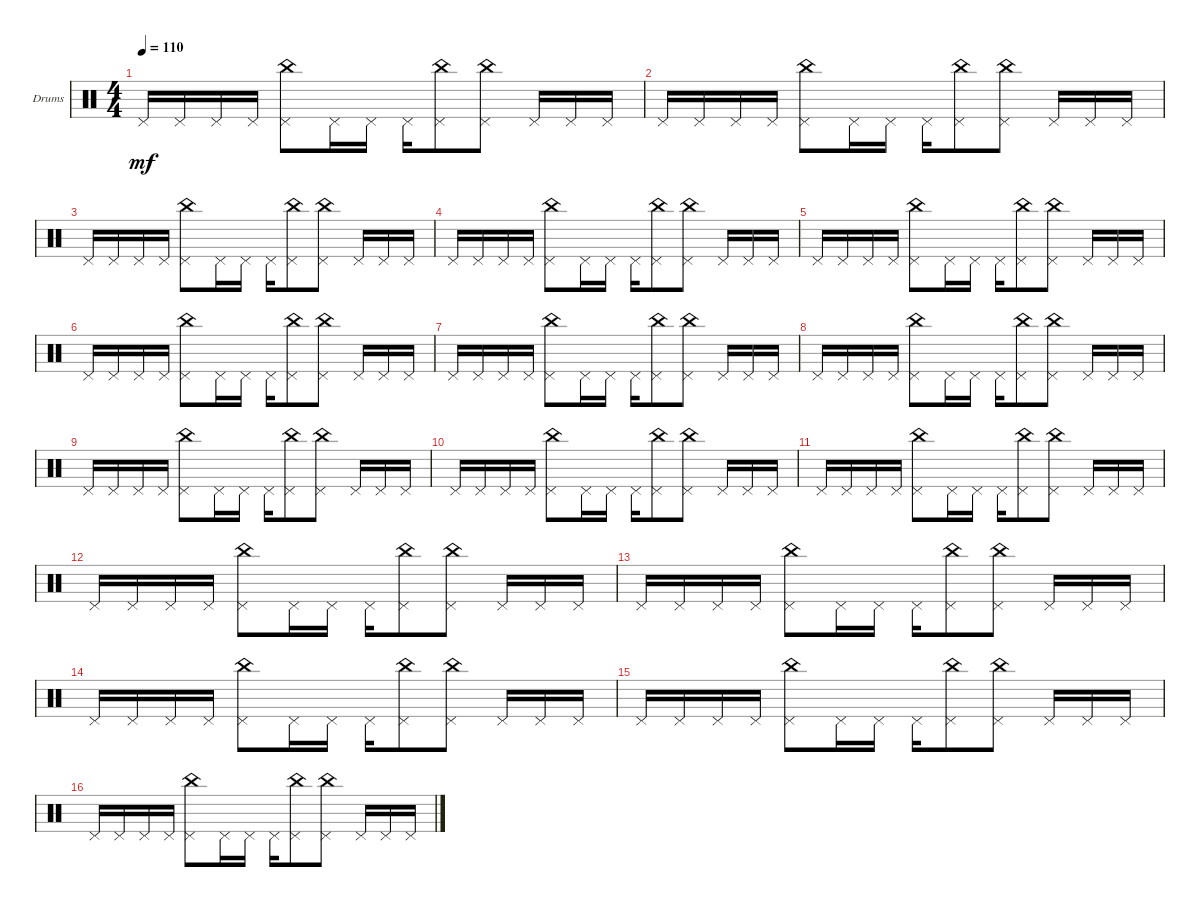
\defaultSystemsLayout 4
\bracketExtendMode groupsimilarinstruments
\firstSystemTrackNameOrientation horizontal
\otherSystemsTrackNameOrientation horizontal
\track ("Drumkit" "Drums") {instrument percussion}
\staff {score}
\articulation defaults
\ts (4 4)
\tempo 110
\clef neutral
\ks c "Pedal Hi-Hat (hit)".16{dy mf} "Pedal Hi-Hat (hit)".16 "Pedal Hi-Hat (hit)".16 "Pedal Hi-Hat (hit)".16
("Pedal Hi-Hat (hit)" "China (hit)").8 "Pedal Hi-Hat (hit)".16 "Pedal Hi-Hat (hit)".16 "Pedal Hi-Hat (hit)".16 ("Pedal Hi-Hat (hit)" "China (hit)").8 ("China (hit)" "Pedal Hi-Hat (hit)").8 "Pedal Hi-Hat (hit)".16 "Pedal Hi-Hat (hit)".16 "Pedal Hi-Hat (hit)".16 |
"Pedal Hi-Hat (hit)".16 "Pedal Hi-Hat (hit)".16 "Pedal Hi-Hat (hit)".16 "Pedal Hi-Hat (hit)".16 ("Pedal Hi-Hat (hit)" "China (hit)").8 "Pedal Hi-Hat (hit)".16 "Pedal Hi-Hat (hit)".16 "Pedal Hi-Hat (hit)".16 ("Pedal Hi-Hat (hit)" "China (hit)").8 ("China (hit)" "Pedal Hi-Hat (hit)").8 "Pedal Hi-Hat (hit)".16 "Pedal Hi-Hat (hit)".16 "Pedal Hi-Hat (hit)".16 |
"Pedal Hi-Hat (hit)".16 "Pedal Hi-Hat (hit)".16 "Pedal Hi-Hat (hit)".16 "Pedal Hi-Hat (hit)".16 ("Pedal Hi-Hat (hit)" "China (hit)").8 "Pedal Hi-Hat (hit)".16 "Pedal Hi-Hat (hit)".16 "Pedal Hi-Hat (hit)".16 ("Pedal Hi-Hat (hit)" "China (hit)").8 ("China (hit)" "Pedal Hi-Hat (hit)").8 "Pedal Hi-Hat (hit)".16 "Pedal Hi-Hat (hit)".16 "Pedal Hi-Hat (hit)".16 |
"Pedal Hi-Hat (hit)".16 "Pedal Hi-Hat (hit)".16 "Pedal Hi-Hat (hit)".16 "Pedal Hi-Hat (hit)".16 ("Pedal Hi-Hat (hit)" "China (hit)").8 "Pedal Hi-Hat (hit)".16 "Pedal Hi-Hat (hit)".16 "Pedal Hi-Hat (hit)".16 ("Pedal Hi-Hat (hit)" "China (hit)").8 ("China (hit)" "Pedal Hi-Hat (hit)").8 "Pedal Hi-Hat (hit)".16 "Pedal Hi-Hat (hit)".16 "Pedal Hi-Hat (hit)".16 |
"Pedal Hi-Hat (hit)".16 "Pedal Hi-Hat (hit)".16 "Pedal Hi-Hat (hit)".16 "Pedal Hi-Hat (hit)".16 ("Pedal Hi-Hat (hit)" "China (hit)").8 "Pedal Hi-Hat (hit)".16 "Pedal Hi-Hat (hit)".16 "Pedal Hi-Hat (hit)".16 ("Pedal Hi-Hat (hit)" "China (hit)").8 ("China (hit)" "Pedal Hi-Hat (hit)").8 "Pedal Hi-Hat (hit)".16 "Pedal Hi-Hat (hit)".16 "Pedal Hi-Hat (hit)".16 |
"Pedal Hi-Hat (hit)".16 "Pedal Hi-Hat (hit)".16 "Pedal Hi-Hat (hit)".16 "Pedal Hi-Hat (hit)".16 ("Pedal Hi-Hat (hit)" "China (hit)").8 "Pedal Hi-Hat (hit)".16 "Pedal Hi-Hat (hit)".16 "Pedal Hi-Hat (hit)".16 ("Pedal Hi-Hat (hit)" "China (hit)").8 ("China (hit)" "Pedal Hi-Hat (hit)").8 "Pedal Hi-Hat (hit)".16 "Pedal Hi-Hat (hit)".16 "Pedal Hi-Hat (hit)".16 |
"Pedal Hi-Hat (hit)".16 "Pedal Hi-Hat (hit)".16 "Pedal Hi-Hat (hit)".16 "Pedal Hi-Hat (hit)".16 ("Pedal Hi-Hat (hit)" "China (hit)").8 "Pedal Hi-Hat (hit)".16 "Pedal Hi-Hat (hit)".16 "Pedal Hi-Hat (hit)".16 ("Pedal Hi-Hat (hit)" "China (hit)").8 ("China (hit)" "Pedal Hi-Hat (hit)").8 "Pedal Hi-Hat (hit)".16 "Pedal Hi-Hat (hit)".16 "Pedal Hi-Hat (hit)".16 |
"Pedal Hi-Hat (hit)".16 "Pedal Hi-Hat (hit)".16 "Pedal Hi-Hat (hit)".16 "Pedal Hi-Hat (hit)".16 ("Pedal Hi-Hat (hit)" "China (hit)").8 "Pedal Hi-Hat (hit)".16 "Pedal Hi-Hat (hit)".16 "Pedal Hi-Hat (hit)".16 ("Pedal Hi-Hat (hit)" "China (hit)").8 ("China (hit)" "Pedal Hi-Hat (hit)").8 "Pedal Hi-Hat (hit)".16 "Pedal Hi-Hat (hit)".16 "Pedal Hi-Hat (hit)".16 |
"Pedal Hi-Hat (hit)".16 "Pedal Hi-Hat (hit)".16 "Pedal Hi-Hat (hit)".16 "Pedal Hi-Hat (hit)".16 ("Pedal Hi-Hat (hit)" "China (hit)").8 "Pedal Hi-Hat (hit)".16 "Pedal Hi-Hat (hit)".16 "Pedal Hi-Hat (hit)".16 ("Pedal Hi-Hat (hit)" "China (hit)").8 ("China (hit)" "Pedal Hi-Hat (hit)").8 "Pedal Hi-Hat (hit)".16 "Pedal Hi-Hat (hit)".16 "Pedal Hi-Hat (hit)".16 |
"Pedal Hi-Hat (hit)".16 "Pedal Hi-Hat (hit)".16 "Pedal Hi-Hat (hit)".16 "Pedal Hi-Hat (hit)".16 ("Pedal Hi-Hat (hit)" "China (hit)").8 "Pedal Hi-Hat (hit)".16 "Pedal Hi-Hat (hit)".16 "Pedal Hi-Hat (hit)".16 ("Pedal Hi-Hat (hit)" "China (hit)").8 ("China (hit)" "Pedal Hi-Hat (hit)").8 "Pedal Hi-Hat (hit)".16 "Pedal Hi-Hat (hit)".16 "Pedal Hi-Hat (hit)".16 |
"Pedal Hi-Hat (hit)".16 "Pedal Hi-Hat (hit)".16 "Pedal Hi-Hat (hit)".16 "Pedal Hi-Hat (hit)".16 ("Pedal Hi-Hat (hit)" "China (hit)").8 "Pedal Hi-Hat (hit)".16 "Pedal Hi-Hat (hit)".16 "Pedal Hi-Hat (hit)".16 ("Pedal Hi-Hat (hit)" "China (hit)").8 ("China (hit)" "Pedal Hi-Hat (hit)").8 "Pedal Hi-Hat (hit)".16 "Pedal Hi-Hat (hit)".16 "Pedal Hi-Hat (hit)".16 |
"Pedal Hi-Hat (hit)".16 "Pedal Hi-Hat (hit)".16 "Pedal Hi-Hat (hit)".16 "Pedal Hi-Hat (hit)".16 ("Pedal Hi-Hat (hit)" "China (hit)").8 "Pedal Hi-Hat (hit)".16 "Pedal Hi-Hat (hit)".16 "Pedal Hi-Hat (hit)".16 ("Pedal Hi-Hat (hit)" "China (hit)").8 ("China (hit)" "Pedal Hi-Hat (hit)").8 "Pedal Hi-Hat (hit)".16 "Pedal Hi-Hat (hit)".16 "Pedal Hi-Hat (hit)".16 |
"Pedal Hi-Hat (hit)".16 "Pedal Hi-Hat (hit)".16 "Pedal Hi-Hat (hit)".16 "Pedal Hi-Hat (hit)".16 ("Pedal Hi-Hat (hit)" "China (hit)").8 "Pedal Hi-Hat (hit)".16 "Pedal Hi-Hat (hit)".16 "Pedal Hi-Hat (hit)".16 ("Pedal Hi-Hat (hit)" "China (hit)").8 ("China (hit)" "Pedal Hi-Hat (hit)").8 "Pedal Hi-Hat (hit)".16 "Pedal Hi-Hat (hit)".16 "Pedal Hi-Hat (hit)".16 |
"Pedal Hi-Hat (hit)".16 "Pedal Hi-Hat (hit)".16 "Pedal Hi-Hat (hit)".16 "Pedal Hi-Hat (hit)".16 ("Pedal Hi-Hat (hit)" "China (hit)").8 "Pedal Hi-Hat (hit)".16 "Pedal Hi-Hat (hit)".16 "Pedal Hi-Hat (hit)".16 ("Pedal Hi-Hat (hit)" "China (hit)").8 ("China (hit)" "Pedal Hi-Hat (hit)").8 "Pedal Hi-Hat (hit)".16 "Pedal Hi-Hat (hit)".16 "Pedal Hi-Hat (hit)".16 |
"Pedal Hi-Hat (hit)".16 "Pedal Hi-Hat (hit)".16 "Pedal Hi-Hat (hit)".16 "Pedal Hi-Hat (hit)".16 ("Pedal Hi-Hat (hit)" "China (hit)").8 "Pedal Hi-Hat (hit)".16 "Pedal Hi-Hat (hit)".16 "Pedal Hi-Hat (hit)".16 ("Pedal Hi-Hat (hit)" "China (hit)").8 ("China (hit)" "Pedal Hi-Hat (hit)").8 "Pedal Hi-Hat (hit)".16 "Pedal Hi-Hat (hit)".16 "Pedal Hi-Hat (hit)".16 |
"Pedal Hi-Hat (hit)".16 "Pedal Hi-Hat (hit)".16 "Pedal Hi-Hat (hit)".16 "Pedal Hi-Hat (hit)".16 ("Pedal Hi-Hat (hit)" "China (hit)").8 "Pedal Hi-Hat (hit)".16 "Pedal Hi-Hat (hit)".16 "Pedal Hi-Hat (hit)".16 ("Pedal Hi-Hat (hit)" "China (hit)").8 ("China (hit)" "Pedal Hi-Hat (hit)").8 "Pedal Hi-Hat (hit)".16 "Pedal Hi-Hat (hit)".16 "Pedal Hi-Hat (hit)".16
